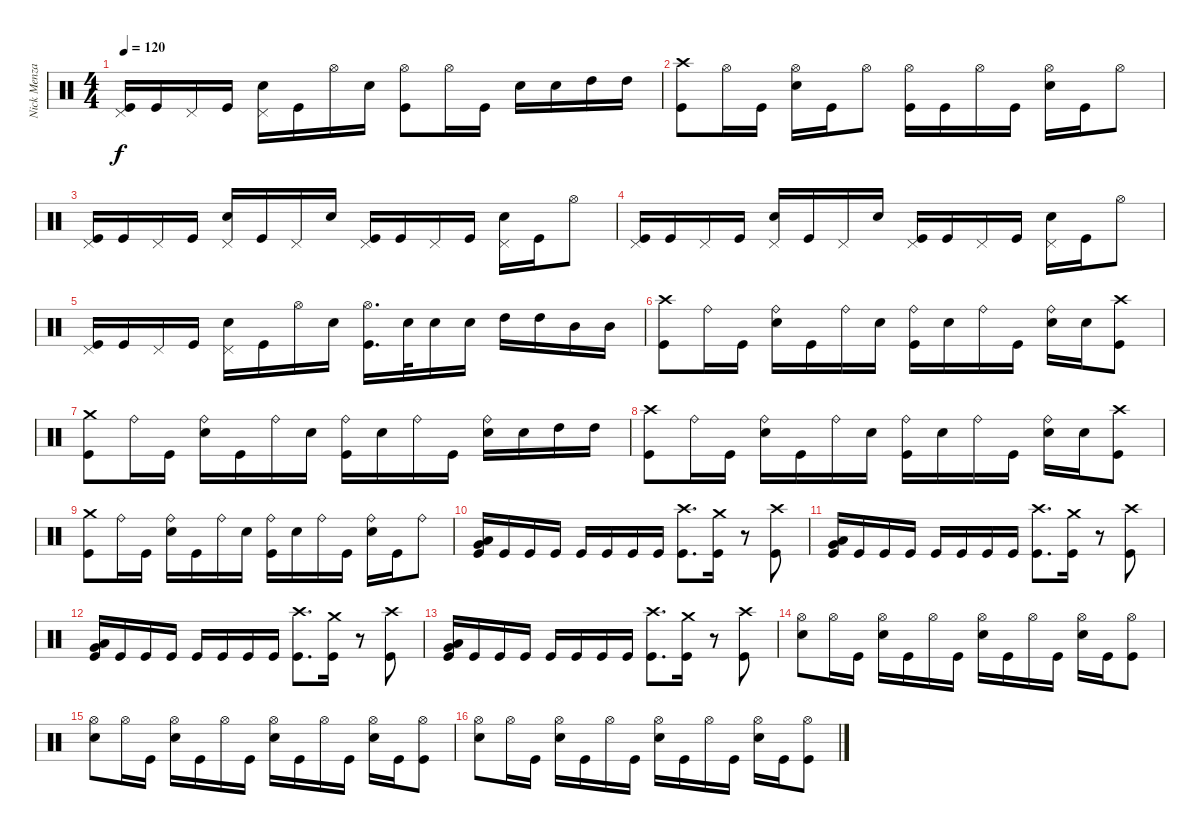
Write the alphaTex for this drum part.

\track ("Nick Menza" "Nick Menza") {instrument percussion}
\staff {score}
\articulation defaults
\ts (4 4)
\tempo 120
\clef neutral
\ks c
("Pedal Hi-Hat (hit)" "Kick (hit)").16{dy f} "Kick (hit)".16 "Pedal Hi-Hat (hit)".16 "Kick (hit)".16 ("Pedal Hi-Hat (hit)" "Snare (hit) 2").16 "Kick (hit)".16 "Hi-Hat (open)".16 "Snare (hit) 2".16 ("Hi-Hat (open)" "Kick (hit)").8 "Hi-Hat (open)".16 "Kick (hit)".16 "Snare (hit) 2".16 "Snare (hit) 2".16 "High Tom (hit)".16 "High Tom (hit)".16 |
("Crash high (hit)" "Kick (hit)").8 "Hi-Hat (open)".16 "Kick (hit)".16 ("Hi-Hat (open)" "Snare (hit) 2").16 "Kick (hit)".16 "Hi-Hat (open)".8 ("Hi-Hat (open)" "Kick (hit)").16 "Kick (hit)".16 "Hi-Hat (open)".16 "Kick (hit)".16 ("Hi-Hat (open)" "Snare (hit) 2").16 "Kick (hit)".16 "Hi-Hat (open)".8 |
("Pedal Hi-Hat (hit)" "Kick (hit)").16 "Kick (hit)".16 "Pedal Hi-Hat (hit)".16 "Kick (hit)".16 ("Pedal Hi-Hat (hit)" "Snare (hit) 2").16 "Kick (hit)".16 "Pedal Hi-Hat (hit)".16 "Snare (hit) 2".16 ("Pedal Hi-Hat (hit)" "Kick (hit)").16 "Kick (hit)".16 "Pedal Hi-Hat (hit)".16 "Kick (hit)".16 ("Pedal Hi-Hat (hit)" "Snare (hit) 2").16 "Kick (hit)".16 "Hi-Hat (open)".8 |
("Pedal Hi-Hat (hit)" "Kick (hit)").16 "Kick (hit)".16 "Pedal Hi-Hat (hit)".16 "Kick (hit)".16 ("Pedal Hi-Hat (hit)" "Snare (hit) 2").16 "Kick (hit)".16 "Pedal Hi-Hat (hit)".16 "Snare (hit) 2".16 ("Pedal Hi-Hat (hit)" "Kick (hit)").16 "Kick (hit)".16 "Pedal Hi-Hat (hit)".16 "Kick (hit)".16 ("Pedal Hi-Hat (hit)" "Snare (hit) 2").16 "Kick (hit)".16 "Hi-Hat (open)".8 |
("Pedal Hi-Hat (hit)" "Kick (hit)").16 "Kick (hit)".16 "Pedal Hi-Hat (hit)".16 "Kick (hit)".16 ("Pedal Hi-Hat (hit)" "Snare (hit) 2").16 "Kick (hit)".16 "Hi-Hat (open)".16 "Snare (hit) 2".16 ("Hi-Hat (open)" "Kick (hit)").16{d} "Snare (hit) 2".32 "Snare (hit) 2".16 "Snare (hit) 2".16 "High Tom (hit)".16 "High Tom (hit)".16 "Mid Tom (hit)".16 "Mid Tom (hit)".16 |
("Crash high (hit)" "Kick (hit)").8 "Ride (bell)".16 "Kick (hit)".16 ("Ride (bell)" "Snare (hit) 2").16 "Kick (hit)".16 "Ride (bell)".16 "Snare (hit) 2".16 ("Ride (bell)" "Kick (hit)").16 "Snare (hit) 2".16 "Ride (bell)".16 "Kick (hit)".16 ("Ride (bell)" "Snare (hit) 2").16 "Snare (hit) 2".16 ("Crash high (hit)" "Kick (hit)").8 |
("Crash medium (hit)" "Kick (hit)").8 "Ride (bell)".16 "Kick (hit)".16 ("Ride (bell)" "Snare (hit) 2").16 "Kick (hit)".16 "Ride (bell)".16 "Snare (hit) 2".16 ("Ride (bell)" "Kick (hit)").16 "Snare (hit) 2".16 "Ride (bell)".16 "Kick (hit)".16 ("Ride (bell)" "Snare (hit) 2").16 "Snare (hit) 2".16 "High Tom (hit)".16 "High Tom (hit)".16 |
("Crash high (hit)" "Kick (hit)").8 "Ride (bell)".16 "Kick (hit)".16 ("Ride (bell)" "Snare (hit) 2").16 "Kick (hit)".16 "Ride (bell)".16 "Snare (hit) 2".16 ("Ride (bell)" "Kick (hit)").16 "Snare (hit) 2".16 "Ride (bell)".16 "Kick (hit)".16 ("Ride (bell)" "Snare (hit) 2").16 "Snare (hit) 2".16 ("Crash high (hit)" "Kick (hit)").8 |
("Crash medium (hit)" "Kick (hit)").8 "Ride (bell)".16 "Kick (hit)".16 ("Ride (bell)" "Snare (hit) 2").16 "Kick (hit)".16 "Ride (bell)".16 "Snare (hit) 2".16 ("Ride (bell)" "Kick (hit)").16 "Snare (hit) 2".16 "Ride (bell)".16 "Kick (hit)".16 ("Ride (bell)" "Snare (hit) 2").16 "Kick (hit)".16 "Ride (bell)".8 |
("Very Low Tom (hit)" "Low Floor Tom (hit)" "Kick (hit)").16 "Kick (hit)".16 "Kick (hit)".16 "Kick (hit)".16 "Kick (hit)".16 "Kick (hit)".16 "Kick (hit)".16 "Kick (hit)".16 ("Crash high (hit)" "Kick (hit)").8{d} ("Crash medium (hit)" "Kick (hit)").16 r.8 ("Crash high (hit)" "Kick (hit)").8 |
("Very Low Tom (hit)" "Low Floor Tom (hit)" "Kick (hit)").16 "Kick (hit)".16 "Kick (hit)".16 "Kick (hit)".16 "Kick (hit)".16 "Kick (hit)".16 "Kick (hit)".16 "Kick (hit)".16 ("Crash high (hit)" "Kick (hit)").8{d} ("Crash medium (hit)" "Kick (hit)").16 r.8 ("Crash high (hit)" "Kick (hit)").8 |
("Very Low Tom (hit)" "Low Floor Tom (hit)" "Kick (hit)").16 "Kick (hit)".16 "Kick (hit)".16 "Kick (hit)".16 "Kick (hit)".16 "Kick (hit)".16 "Kick (hit)".16 "Kick (hit)".16 ("Crash high (hit)" "Kick (hit)").8{d} ("Crash medium (hit)" "Kick (hit)").16 r.8 ("Crash high (hit)" "Kick (hit)").8 |
("Very Low Tom (hit)" "Low Floor Tom (hit)" "Kick (hit)").16 "Kick (hit)".16 "Kick (hit)".16 "Kick (hit)".16 "Kick (hit)".16 "Kick (hit)".16 "Kick (hit)".16 "Kick (hit)".16 ("Crash high (hit)" "Kick (hit)").8{d} ("Crash medium (hit)" "Kick (hit)").16 r.8 ("Crash high (hit)" "Kick (hit)").8 |
("Hi-Hat (open)" "Snare (hit) 2").8 "Hi-Hat (open)".16 "Kick (hit)".16 ("Hi-Hat (open)" "Snare (hit) 2").16 "Kick (hit)".16 "Hi-Hat (open)".16 "Kick (hit)".16 ("Hi-Hat (open)" "Snare (hit) 2").16 "Kick (hit)".16 "Hi-Hat (open)".16 "Kick (hit)".16 ("Hi-Hat (open)" "Snare (hit) 2").16 "Kick (hit)".16 ("Hi-Hat (open)" "Kick (hit)").8 |
("Hi-Hat (open)" "Snare (hit) 2").8 "Hi-Hat (open)".16 "Kick (hit)".16 ("Hi-Hat (open)" "Snare (hit) 2").16 "Kick (hit)".16 "Hi-Hat (open)".16 "Kick (hit)".16 ("Hi-Hat (open)" "Snare (hit) 2").16 "Kick (hit)".16 "Hi-Hat (open)".16 "Kick (hit)".16 ("Hi-Hat (open)" "Snare (hit) 2").16 "Kick (hit)".16 ("Hi-Hat (open)" "Kick (hit)").8 |
("Hi-Hat (open)" "Snare (hit) 2").8 "Hi-Hat (open)".16 "Kick (hit)".16 ("Hi-Hat (open)" "Snare (hit) 2").16 "Kick (hit)".16 "Hi-Hat (open)".16 "Kick (hit)".16 ("Hi-Hat (open)" "Snare (hit) 2").16 "Kick (hit)".16 "Hi-Hat (open)".16 "Kick (hit)".16 ("Hi-Hat (open)" "Snare (hit) 2").16 "Kick (hit)".16 ("Hi-Hat (open)" "Kick (hit)").8
